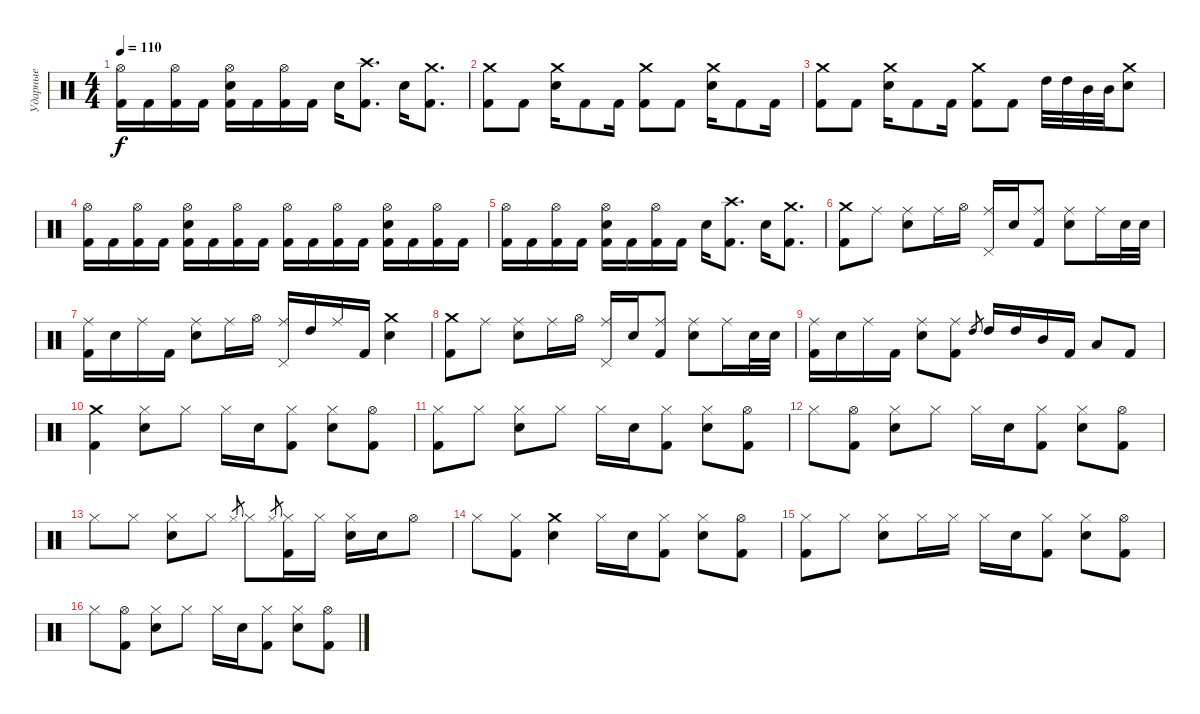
\track ("Ударные" "Ударные") {instrument percussion}
\staff {score}
\articulation defaults
\ts (4 4)
\tempo 110
\clef neutral
\ks c
("Kick (hit) 2" "Hi-Hat (open)").16{dy f} "Kick (hit) 2".16 ("Kick (hit) 2" "Hi-Hat (open)").16 "Kick (hit) 2".16 ("Kick (hit) 2" "Hi-Hat (open)" "Electric Snare (hit)").16 "Kick (hit) 2".16 ("Kick (hit) 2" "Hi-Hat (open)").16 "Kick (hit) 2".16 "Electric Snare (hit)".16 ("Kick (hit) 2" "Crash high (hit)").8{d} "Electric Snare (hit)".16 ("Kick (hit) 2" "Crash medium (hit)").8{d} |
("Kick (hit) 2" "Crash medium (hit)").8 "Kick (hit) 2".8 ("Electric Snare (hit)" "Crash medium (hit)").16 "Kick (hit) 2".8 "Kick (hit) 2".16 ("Kick (hit) 2" "Crash medium (hit)").8 "Kick (hit) 2".8 ("Electric Snare (hit)" "Crash medium (hit)").16 "Kick (hit) 2".8 "Kick (hit) 2".16 |
("Kick (hit) 2" "Crash medium (hit)").8 "Kick (hit) 2".8 ("Electric Snare (hit)" "Crash medium (hit)").16 "Kick (hit) 2".8 "Kick (hit) 2".16 ("Kick (hit) 2" "Crash medium (hit)").8 "Kick (hit) 2".8 "High Tom (hit)".32 "High Tom (hit)".32 "Mid Tom (hit)".32 "Mid Tom (hit)".32 ("Electric Snare (hit)" "Crash medium (hit)").8 |
("Kick (hit) 2" "Hi-Hat (open)").16 "Kick (hit) 2".16 ("Kick (hit) 2" "Hi-Hat (open)").16 "Kick (hit) 2".16 ("Kick (hit) 2" "Hi-Hat (open)" "Electric Snare (hit)").16 "Kick (hit) 2".16 ("Kick (hit) 2" "Hi-Hat (open)").16 "Kick (hit) 2".16 ("Kick (hit) 2" "Hi-Hat (open)").16 "Kick (hit) 2".16 ("Kick (hit) 2" "Hi-Hat (open)").16 "Kick (hit) 2".16 ("Kick (hit) 2" "Hi-Hat (open)" "Electric Snare (hit)").16 "Kick (hit) 2".16 ("Kick (hit) 2" "Hi-Hat (open)").16 "Kick (hit) 2".16 |
("Kick (hit) 2" "Hi-Hat (open)").16 "Kick (hit) 2".16 ("Kick (hit) 2" "Hi-Hat (open)").16 "Kick (hit) 2".16 ("Kick (hit) 2" "Hi-Hat (open)" "Electric Snare (hit)").16 "Kick (hit) 2".16 ("Kick (hit) 2" "Hi-Hat (open)").16 "Kick (hit) 2".16 "Electric Snare (hit)".16 ("Kick (hit) 2" "Crash high (hit)").8{d} "Electric Snare (hit)".16 ("Kick (hit) 2" "Crash medium (hit)").8{d} |
("Kick (hit) 2" "Crash medium (hit)").8 "Ride (middle)".8 ("Ride (middle)" "Electric Snare (hit)").8 "Ride (middle)".16 "Hi-Hat (open)".16 ("Ride (middle)" "Pedal Hi-Hat (hit)").16 "Electric Snare (hit)".16 ("Ride (middle)" "Kick (hit) 2").8 ("Ride (middle)" "Electric Snare (hit)").8 "Ride (middle)".16 "Electric Snare (hit)".32 "Electric Snare (hit)".32 |
("Kick (hit) 2" "Ride (middle)").16 "Electric Snare (hit)".16 "Ride (middle)".16 "Kick (hit) 2".16 ("Ride (middle)" "Electric Snare (hit)").8 "Ride (middle)".16 "Hi-Hat (open)".16 ("Pedal Hi-Hat (hit)" "Ride (middle)").16 "High Tom (hit)".16 "Ride (middle)".16 "Kick (hit) 2".16 ("Crash medium (hit)" "Electric Snare (hit)").4 |
("Kick (hit) 2" "Crash medium (hit)").8 "Ride (middle)".8 ("Ride (middle)" "Electric Snare (hit)").8 "Ride (middle)".16 "Hi-Hat (open)".16 ("Ride (middle)" "Pedal Hi-Hat (hit)").16 "Electric Snare (hit)".16 ("Ride (middle)" "Kick (hit) 2").8 ("Ride (middle)" "Electric Snare (hit)").8 "Ride (middle)".16 "Electric Snare (hit)".32 "Electric Snare (hit)".32 |
("Kick (hit) 2" "Ride (middle)").16 "Electric Snare (hit)".16 "Ride (middle)".16 "Kick (hit) 2".16 ("Ride (middle)" "Electric Snare (hit)").8 ("Ride (middle)" "Kick (hit) 2").8 "High Tom (hit)".8{gr} "High Tom (hit)".16 "High Tom (hit)".16 "Mid Tom (hit)".16 "Kick (hit) 2".16 "Low Tom (hit)".8 "Kick (hit) 2".8 |
("Kick (hit) 2" "Crash medium (hit)").4 ("Electric Snare (hit)" "Hi-Hat (closed)").8 "Hi-Hat (closed)".8 "Hi-Hat (closed)".16 "Electric Snare (hit)".16 ("Hi-Hat (closed)" "Kick (hit) 2").8 ("Hi-Hat (closed)" "Electric Snare (hit)").8 ("Kick (hit) 2" "Hi-Hat (open)").8 |
("Hi-Hat (closed)" "Kick (hit) 2").8 "Hi-Hat (closed)".8 ("Electric Snare (hit)" "Hi-Hat (closed)").8 "Hi-Hat (closed)".8 "Hi-Hat (closed)".16 "Electric Snare (hit)".16 ("Hi-Hat (closed)" "Kick (hit) 2").8 ("Hi-Hat (closed)" "Electric Snare (hit)").8 ("Kick (hit) 2" "Hi-Hat (open)").8 |
"Hi-Hat (closed)".8 ("Kick (hit) 2" "Hi-Hat (open)").8 ("Electric Snare (hit)" "Hi-Hat (closed)").8 "Hi-Hat (closed)".8 "Hi-Hat (closed)".16 "Electric Snare (hit)".16 ("Hi-Hat (closed)" "Kick (hit) 2").8 ("Hi-Hat (closed)" "Electric Snare (hit)").8 ("Kick (hit) 2" "Hi-Hat (open)").8 |
"Hi-Hat (closed)".8 "Hi-Hat (closed)".8 ("Electric Snare (hit)" "Hi-Hat (closed)").8 "Hi-Hat (closed)".8 "Hi-Hat (closed)".8{gr} "Hi-Hat (closed)".8 "Hi-Hat (closed)".8{gr} ("Kick (hit) 2" "Hi-Hat (closed)").16 "Hi-Hat (closed)".16 ("Electric Snare (hit)" "Hi-Hat (closed)").16 "Electric Snare (hit)".16 "Hi-Hat (open)".8 |
"Hi-Hat (closed)".8 ("Kick (hit) 2" "Hi-Hat (closed)").8 ("Electric Snare (hit)" "Crash medium (hit)").4 "Hi-Hat (closed)".16 "Electric Snare (hit)".16 ("Hi-Hat (closed)" "Kick (hit) 2").8 ("Hi-Hat (closed)" "Electric Snare (hit)").8 ("Kick (hit) 2" "Hi-Hat (open)").8 |
("Hi-Hat (closed)" "Kick (hit) 2").8 "Hi-Hat (closed)".8 ("Electric Snare (hit)" "Hi-Hat (closed)").8 "Hi-Hat (closed)".16 "Hi-Hat (closed)".16 "Hi-Hat (closed)".16 "Electric Snare (hit)".16 ("Hi-Hat (closed)" "Kick (hit) 2").8 ("Hi-Hat (closed)" "Electric Snare (hit)").8 ("Kick (hit) 2" "Hi-Hat (open)").8 |
"Hi-Hat (closed)".8 ("Kick (hit) 2" "Hi-Hat (open)").8 ("Electric Snare (hit)" "Hi-Hat (closed)").8 "Hi-Hat (closed)".8 "Hi-Hat (closed)".16 "Electric Snare (hit)".16 ("Hi-Hat (closed)" "Kick (hit) 2").8 ("Hi-Hat (closed)" "Electric Snare (hit)").8 ("Kick (hit) 2" "Hi-Hat (open)").8
